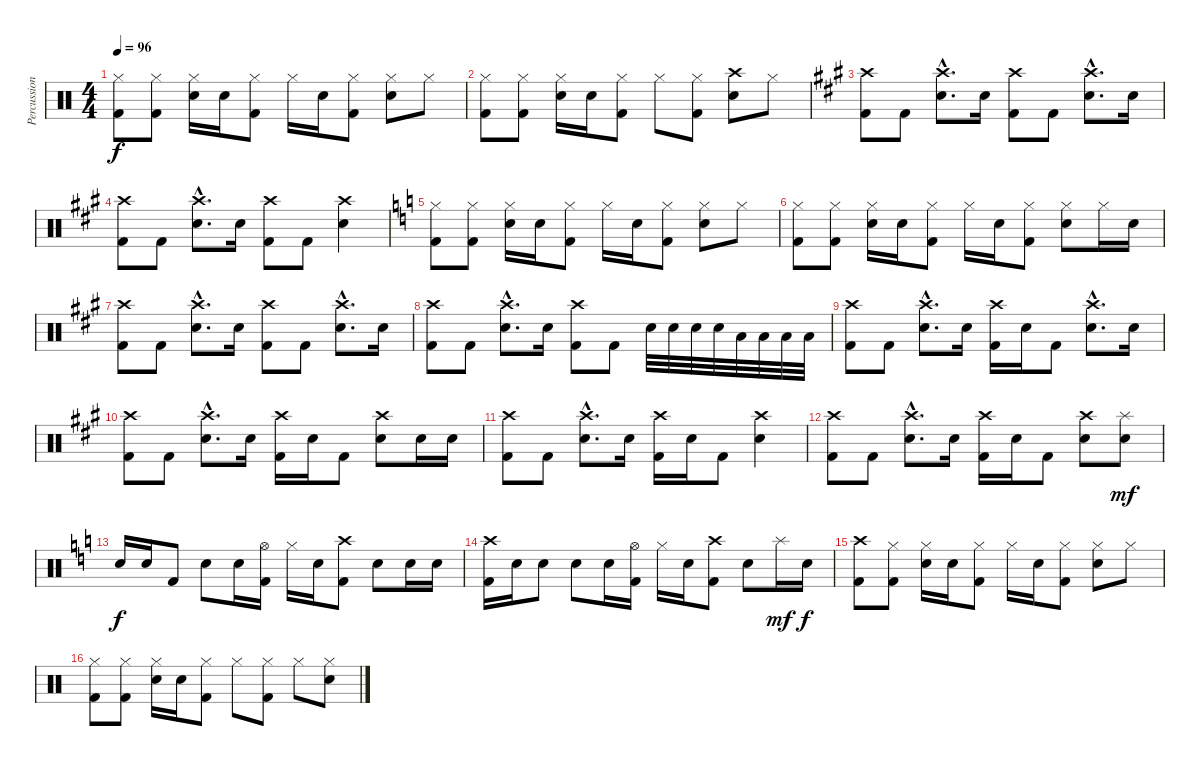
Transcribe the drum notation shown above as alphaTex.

\track ("Percussion" "Percussion") {instrument percussion}
\staff {score}
\articulation defaults
\ts (4 4)
\tempo 96
\clef neutral
\ks c
("Hi-Hat (closed)" "Kick (hit) 2").8{dy f} ("Hi-Hat (closed)" "Kick (hit) 2").8 ("Hi-Hat (closed)" "Electric Snare (hit)").16 "Electric Snare (hit)".16 ("Hi-Hat (closed)" "Kick (hit) 2").8 "Hi-Hat (closed)".16 "Electric Snare (hit)".16 ("Hi-Hat (closed)" "Kick (hit) 2").8 ("Hi-Hat (closed)" "Electric Snare (hit)").8 "Hi-Hat (closed)".8 |
("Hi-Hat (closed)" "Kick (hit) 2").8 ("Hi-Hat (closed)" "Kick (hit) 2").8 ("Hi-Hat (closed)" "Electric Snare (hit)").16 "Electric Snare (hit)".16 ("Hi-Hat (closed)" "Kick (hit) 2").8 "Hi-Hat (closed)".8 ("Hi-Hat (closed)" "Kick (hit) 2").8 ("Crash high (hit)" "Electric Snare (hit)").8 "Hi-Hat (closed)".8 |
\ks a
("Crash high (hit)" "Kick (hit) 2").8 "Kick (hit) 2".8 ("Crash high (hit)"{hac} "Electric Snare (hit)"{hac}).8{d} "Electric Snare (hit)".16 ("Crash high (hit)" "Kick (hit) 2").8 "Kick (hit) 2".8 ("Crash high (hit)"{hac} "Electric Snare (hit)"{hac}).8{d} "Electric Snare (hit)".16 |
("Crash high (hit)" "Kick (hit) 2").8 "Kick (hit) 2".8 ("Crash high (hit)"{hac} "Electric Snare (hit)"{hac}).8{d} "Electric Snare (hit)".16 ("Crash high (hit)" "Kick (hit) 2").8 "Kick (hit) 2".8 ("Crash high (hit)" "Electric Snare (hit)").4 |
\ks c
("Hi-Hat (closed)" "Kick (hit) 2").8 ("Hi-Hat (closed)" "Kick (hit) 2").8 ("Hi-Hat (closed)" "Electric Snare (hit)").16 "Electric Snare (hit)".16 ("Hi-Hat (closed)" "Kick (hit) 2").8 "Hi-Hat (closed)".16 "Electric Snare (hit)".16 ("Hi-Hat (closed)" "Kick (hit) 2").8 ("Hi-Hat (closed)" "Electric Snare (hit)").8 "Hi-Hat (closed)".8 |
("Hi-Hat (closed)" "Kick (hit) 2").8 ("Hi-Hat (closed)" "Kick (hit) 2").8 ("Hi-Hat (closed)" "Electric Snare (hit)").16 "Electric Snare (hit)".16 ("Hi-Hat (closed)" "Kick (hit) 2").8 "Hi-Hat (closed)".16 "Electric Snare (hit)".16 ("Hi-Hat (closed)" "Kick (hit) 2").8 ("Hi-Hat (closed)" "Electric Snare (hit)").8 "Hi-Hat (closed)".16 "Electric Snare (hit)".16 |
\ks a
("Crash high (hit)" "Kick (hit) 2").8 "Kick (hit) 2".8 ("Crash high (hit)"{hac} "Electric Snare (hit)"{hac}).8{d} "Electric Snare (hit)".16 ("Crash high (hit)" "Kick (hit) 2").8 "Kick (hit) 2".8 ("Crash high (hit)"{hac} "Electric Snare (hit)"{hac}).8{d} "Electric Snare (hit)".16 |
("Crash high (hit)" "Kick (hit) 2").8 "Kick (hit) 2".8 ("Crash high (hit)"{hac} "Electric Snare (hit)"{hac}).8{d} "Electric Snare (hit)".16 ("Crash high (hit)" "Kick (hit) 2").8 "Kick (hit) 2".8 "Electric Snare (hit)".32 "Electric Snare (hit)".32 "Electric Snare (hit)".32 "Electric Snare (hit)".32 "Low Tom (hit)".32 "Low Tom (hit)".32 "Low Tom (hit)".32 "Low Tom (hit)".32 |
("Crash high (hit)" "Kick (hit) 2").8 "Kick (hit) 2".8 ("Crash high (hit)"{hac} "Electric Snare (hit)"{hac}).8{d} "Electric Snare (hit)".16 ("Crash high (hit)" "Kick (hit) 2").16 "Electric Snare (hit)".16 "Kick (hit) 2".8 ("Crash high (hit)"{hac} "Electric Snare (hit)"{hac}).8{d} "Electric Snare (hit)".16 |
("Crash high (hit)" "Kick (hit) 2").8 "Kick (hit) 2".8 ("Crash high (hit)"{hac} "Electric Snare (hit)"{hac}).8{d} "Electric Snare (hit)".16 ("Crash high (hit)" "Kick (hit) 2").16 "Electric Snare (hit)".16 "Kick (hit) 2".8 ("Crash high (hit)" "Electric Snare (hit)").8 "Electric Snare (hit)".16 "Electric Snare (hit)".16 |
("Crash high (hit)" "Kick (hit) 2").8 "Kick (hit) 2".8 ("Crash high (hit)"{hac} "Electric Snare (hit)"{hac}).8{d} "Electric Snare (hit)".16 ("Crash high (hit)" "Kick (hit) 2").16 "Electric Snare (hit)".16 "Kick (hit) 2".8 ("Crash high (hit)" "Electric Snare (hit)").4 |
("Crash high (hit)" "Kick (hit) 2").8 "Kick (hit) 2".8 ("Crash high (hit)"{hac} "Electric Snare (hit)"{hac}).8{d} "Electric Snare (hit)".16 ("Crash high (hit)" "Kick (hit) 2").16 "Electric Snare (hit)".16 "Kick (hit) 2".8 ("Crash high (hit)" "Electric Snare (hit)").8 ("Splash (hit)" "Electric Snare (hit)").8{dy mf} |
\ks c "Electric Snare (hit)".16{dy f} "Electric Snare (hit)".16 "Kick (hit) 2".8 "Electric Snare (hit)".8 "Electric Snare (hit)".16
("Hi-Hat (open)" "Kick (hit) 2").16 "Hi-Hat (closed)".16 "Electric Snare (hit)".16 ("Crash high (hit)" "Kick (hit) 2").8 "Electric Snare (hit)".8 "Electric Snare (hit)".16 "Electric Snare (hit)".16 |
("Crash high (hit)" "Kick (hit) 2").16 "Electric Snare (hit)".16 "Electric Snare (hit)".8 "Electric Snare (hit)".8 "Electric Snare (hit)".16 ("Hi-Hat (open)" "Kick (hit) 2").16 "Hi-Hat (closed)".16 "Electric Snare (hit)".16 ("Crash high (hit)" "Kick (hit) 2").8 "Electric Snare (hit)".8 "Splash (hit)".16{dy mf} "Electric Snare (hit)".16{dy f} |
("Crash high (hit)" "Kick (hit) 2").8 ("Hi-Hat (closed)" "Kick (hit) 2").8 ("Hi-Hat (closed)" "Electric Snare (hit)").16 "Electric Snare (hit)".16 ("Hi-Hat (closed)" "Kick (hit) 2").8 "Hi-Hat (closed)".16 "Electric Snare (hit)".16 ("Hi-Hat (closed)" "Kick (hit) 2").8 ("Hi-Hat (closed)" "Electric Snare (hit)").8 "Hi-Hat (closed)".8 |
("Hi-Hat (closed)" "Kick (hit) 2").8 ("Hi-Hat (closed)" "Kick (hit) 2").8 ("Hi-Hat (closed)" "Electric Snare (hit)").16 "Electric Snare (hit)".16 ("Hi-Hat (closed)" "Kick (hit) 2").8 "Hi-Hat (closed)".8 ("Hi-Hat (closed)" "Kick (hit) 2").8 "Hi-Hat (closed)".8 ("Hi-Hat (closed)" "Electric Snare (hit)").8
